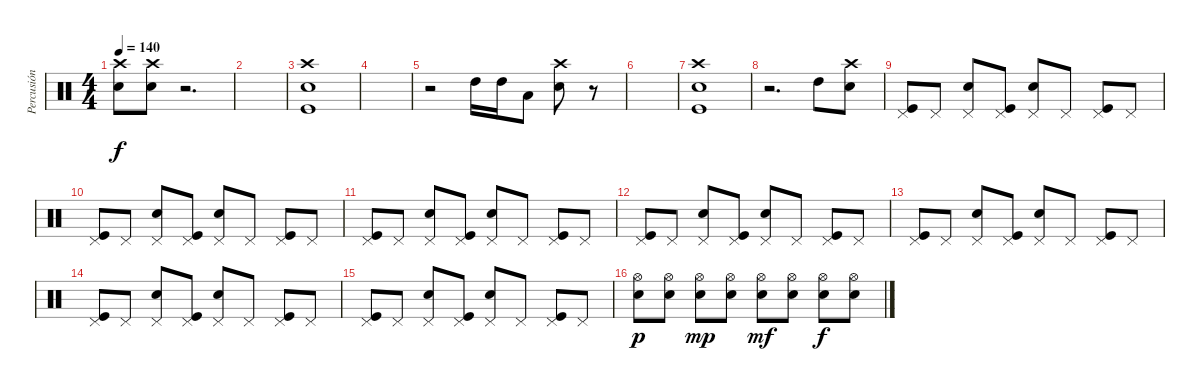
\track ("Percusión" "Percusión") {instrument percussion}
\staff {score}
\articulation defaults
\ts (4 4)
\tempo 140
\clef neutral
\ks c
("Crash high (hit)" "Snare (hit) 2").8{dy f} ("Crash high (hit)" "Snare (hit) 2").8 r.2{d} |
|
("Crash high (hit)" "Snare (hit) 2" "Kick (hit)").1 |
|
r.2 "High Tom (hit)".16 "High Tom (hit)".16 "Low Tom (hit)".8 ("Crash high (hit)" "Snare (hit) 2").8 r.8 |
|
("Crash high (hit)" "Snare (hit) 2" "Kick (hit)").1 |
r.2{d} "High Tom (hit)".8 ("Crash high (hit)" "Snare (hit) 2").8 |
("Pedal Hi-Hat (hit)" "Kick (hit)").8 "Pedal Hi-Hat (hit)".8 ("Pedal Hi-Hat (hit)" "Snare (hit) 2").8 ("Pedal Hi-Hat (hit)" "Kick (hit)").8 ("Pedal Hi-Hat (hit)" "Snare (hit) 2").8 "Pedal Hi-Hat (hit)".8 ("Pedal Hi-Hat (hit)" "Kick (hit)").8 "Pedal Hi-Hat (hit)".8 |
("Pedal Hi-Hat (hit)" "Kick (hit)").8 "Pedal Hi-Hat (hit)".8 ("Pedal Hi-Hat (hit)" "Snare (hit) 2").8 ("Pedal Hi-Hat (hit)" "Kick (hit)").8 ("Pedal Hi-Hat (hit)" "Snare (hit) 2").8 "Pedal Hi-Hat (hit)".8 ("Pedal Hi-Hat (hit)" "Kick (hit)").8 "Pedal Hi-Hat (hit)".8 |
("Pedal Hi-Hat (hit)" "Kick (hit)").8 "Pedal Hi-Hat (hit)".8 ("Pedal Hi-Hat (hit)" "Snare (hit) 2").8 ("Pedal Hi-Hat (hit)" "Kick (hit)").8 ("Pedal Hi-Hat (hit)" "Snare (hit) 2").8 "Pedal Hi-Hat (hit)".8 ("Pedal Hi-Hat (hit)" "Kick (hit)").8 "Pedal Hi-Hat (hit)".8 |
("Pedal Hi-Hat (hit)" "Kick (hit)").8 "Pedal Hi-Hat (hit)".8 ("Pedal Hi-Hat (hit)" "Snare (hit) 2").8 ("Pedal Hi-Hat (hit)" "Kick (hit)").8 ("Pedal Hi-Hat (hit)" "Snare (hit) 2").8 "Pedal Hi-Hat (hit)".8 ("Pedal Hi-Hat (hit)" "Kick (hit)").8 "Pedal Hi-Hat (hit)".8 |
("Pedal Hi-Hat (hit)" "Kick (hit)").8 "Pedal Hi-Hat (hit)".8 ("Pedal Hi-Hat (hit)" "Snare (hit) 2").8 ("Pedal Hi-Hat (hit)" "Kick (hit)").8 ("Pedal Hi-Hat (hit)" "Snare (hit) 2").8 "Pedal Hi-Hat (hit)".8 ("Pedal Hi-Hat (hit)" "Kick (hit)").8 "Pedal Hi-Hat (hit)".8 |
("Pedal Hi-Hat (hit)" "Kick (hit)").8 "Pedal Hi-Hat (hit)".8 ("Pedal Hi-Hat (hit)" "Snare (hit) 2").8 ("Pedal Hi-Hat (hit)" "Kick (hit)").8 ("Pedal Hi-Hat (hit)" "Snare (hit) 2").8 "Pedal Hi-Hat (hit)".8 ("Pedal Hi-Hat (hit)" "Kick (hit)").8 "Pedal Hi-Hat (hit)".8 |
("Pedal Hi-Hat (hit)" "Kick (hit)").8 "Pedal Hi-Hat (hit)".8 ("Pedal Hi-Hat (hit)" "Snare (hit) 2").8 ("Pedal Hi-Hat (hit)" "Kick (hit)").8 ("Pedal Hi-Hat (hit)" "Snare (hit) 2").8 "Pedal Hi-Hat (hit)".8 ("Pedal Hi-Hat (hit)" "Kick (hit)").8 "Pedal Hi-Hat (hit)".8 |
("Hi-Hat (open)" "Snare (hit) 2").8{dy p} ("Hi-Hat (open)" "Snare (hit) 2").8 ("Hi-Hat (open)" "Snare (hit) 2").8{dy mp} ("Hi-Hat (open)" "Snare (hit) 2").8 ("Hi-Hat (open)" "Snare (hit) 2").8{dy mf} ("Hi-Hat (open)" "Snare (hit) 2").8 ("Hi-Hat (open)" "Snare (hit) 2").8{dy f} ("Hi-Hat (open)" "Snare (hit) 2").8
